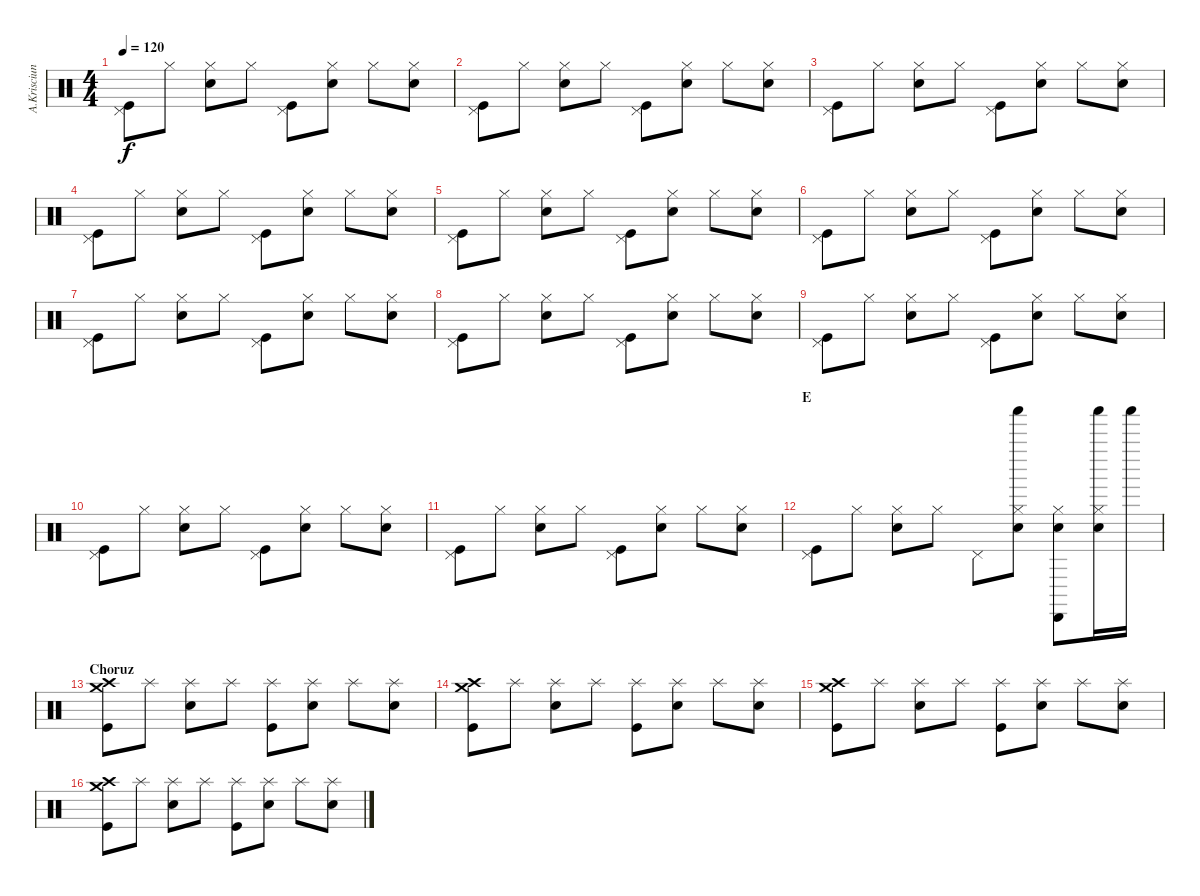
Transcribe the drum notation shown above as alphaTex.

\track ("A.Krisciunas" "A.Krisciun") {instrument percussion}
\staff {score}
\articulation defaults
\ts (4 4)
\tempo 120
\clef neutral
\ks c
("Pedal Hi-Hat (hit)" "Kick (hit)").8{dy f} "Hi-Hat (closed)".8 ("Hi-Hat (closed)" "Electric Snare (hit)").8 "Hi-Hat (closed)".8 ("Pedal Hi-Hat (hit)" "Kick (hit)").8 ("Hi-Hat (closed)" "Electric Snare (hit)").8 "Hi-Hat (closed)".8 ("Hi-Hat (closed)" "Electric Snare (hit)").8 |
("Pedal Hi-Hat (hit)" "Kick (hit)").8 "Hi-Hat (closed)".8 ("Hi-Hat (closed)" "Electric Snare (hit)").8 "Hi-Hat (closed)".8 ("Pedal Hi-Hat (hit)" "Kick (hit)").8 ("Hi-Hat (closed)" "Electric Snare (hit)").8 "Hi-Hat (closed)".8 ("Hi-Hat (closed)" "Electric Snare (hit)").8 |
("Pedal Hi-Hat (hit)" "Kick (hit)").8 "Hi-Hat (closed)".8 ("Hi-Hat (closed)" "Electric Snare (hit)").8 "Hi-Hat (closed)".8 ("Pedal Hi-Hat (hit)" "Kick (hit)").8 ("Hi-Hat (closed)" "Electric Snare (hit)").8 "Hi-Hat (closed)".8 ("Hi-Hat (closed)" "Electric Snare (hit)").8 |
("Pedal Hi-Hat (hit)" "Kick (hit)").8 "Hi-Hat (closed)".8 ("Hi-Hat (closed)" "Electric Snare (hit)").8 "Hi-Hat (closed)".8 ("Pedal Hi-Hat (hit)" "Kick (hit)").8 ("Hi-Hat (closed)" "Electric Snare (hit)").8 "Hi-Hat (closed)".8 ("Hi-Hat (closed)" "Electric Snare (hit)").8 |
("Pedal Hi-Hat (hit)" "Kick (hit)").8 "Hi-Hat (closed)".8 ("Hi-Hat (closed)" "Electric Snare (hit)").8 "Hi-Hat (closed)".8 ("Pedal Hi-Hat (hit)" "Kick (hit)").8 ("Hi-Hat (closed)" "Electric Snare (hit)").8 "Hi-Hat (closed)".8 ("Hi-Hat (closed)" "Electric Snare (hit)").8 |
("Pedal Hi-Hat (hit)" "Kick (hit)").8 "Hi-Hat (closed)".8 ("Hi-Hat (closed)" "Electric Snare (hit)").8 "Hi-Hat (closed)".8 ("Pedal Hi-Hat (hit)" "Kick (hit)").8 ("Hi-Hat (closed)" "Electric Snare (hit)").8 "Hi-Hat (closed)".8 ("Hi-Hat (closed)" "Electric Snare (hit)").8 |
("Pedal Hi-Hat (hit)" "Kick (hit)").8 "Hi-Hat (closed)".8 ("Hi-Hat (closed)" "Electric Snare (hit)").8 "Hi-Hat (closed)".8 ("Pedal Hi-Hat (hit)" "Kick (hit)").8 ("Hi-Hat (closed)" "Electric Snare (hit)").8 "Hi-Hat (closed)".8 ("Hi-Hat (closed)" "Electric Snare (hit)").8 |
("Pedal Hi-Hat (hit)" "Kick (hit)").8 "Hi-Hat (closed)".8 ("Hi-Hat (closed)" "Electric Snare (hit)").8 "Hi-Hat (closed)".8 ("Pedal Hi-Hat (hit)" "Kick (hit)").8 ("Hi-Hat (closed)" "Electric Snare (hit)").8 "Hi-Hat (closed)".8 ("Hi-Hat (closed)" "Electric Snare (hit)").8 |
("Pedal Hi-Hat (hit)" "Kick (hit)").8 "Hi-Hat (closed)".8 ("Hi-Hat (closed)" "Electric Snare (hit)").8 "Hi-Hat (closed)".8 ("Pedal Hi-Hat (hit)" "Kick (hit)").8 ("Hi-Hat (closed)" "Electric Snare (hit)").8 "Hi-Hat (closed)".8 ("Hi-Hat (closed)" "Electric Snare (hit)").8 |
("Pedal Hi-Hat (hit)" "Kick (hit)").8 "Hi-Hat (closed)".8 ("Hi-Hat (closed)" "Electric Snare (hit)").8 "Hi-Hat (closed)".8 ("Pedal Hi-Hat (hit)" "Kick (hit)").8 ("Hi-Hat (closed)" "Electric Snare (hit)").8 "Hi-Hat (closed)".8 ("Hi-Hat (closed)" "Electric Snare (hit)").8 |
("Pedal Hi-Hat (hit)" "Kick (hit)").8 "Hi-Hat (closed)".8 ("Hi-Hat (closed)" "Electric Snare (hit)").8 "Hi-Hat (closed)".8 ("Pedal Hi-Hat (hit)" "Kick (hit)").8 ("Hi-Hat (closed)" "Electric Snare (hit)").8 "Hi-Hat (closed)".8 ("Hi-Hat (closed)" "Electric Snare (hit)").8 |
\section ("" "E")
("Pedal Hi-Hat (hit)" "Kick (hit)").8 "Hi-Hat (closed)".8 ("Hi-Hat (closed)" "Electric Snare (hit)").8 "Hi-Hat (closed)".8 "Pedal Hi-Hat (hit)".8 ("Shaker (hit)" "Hi-Hat (closed)" "Electric Snare (hit)").8 ("Cabasa (hit)" "Hi-Hat (closed)" "Electric Snare (hit)").8 ("Shaker (hit)" "Hi-Hat (closed)" "Electric Snare (hit)").16 "Shaker (hit)".16 |
\section ("" "Choruz")
("Crash medium (hit)" "Crash high (hit)" "Kick (hit)").8 "Splash (hit)".8 ("Splash (hit)" "Electric Snare (hit)").8 "Splash (hit)".8 ("Splash (hit)" "Kick (hit)").8 ("Splash (hit)" "Electric Snare (hit)").8 "Splash (hit)".8 ("Splash (hit)" "Electric Snare (hit)").8 |
("Crash medium (hit)" "Crash high (hit)" "Kick (hit)").8 "Splash (hit)".8 ("Splash (hit)" "Electric Snare (hit)").8 "Splash (hit)".8 ("Splash (hit)" "Kick (hit)").8 ("Splash (hit)" "Electric Snare (hit)").8 "Splash (hit)".8 ("Splash (hit)" "Electric Snare (hit)").8 |
("Crash medium (hit)" "Crash high (hit)" "Kick (hit)").8 "Splash (hit)".8 ("Splash (hit)" "Electric Snare (hit)").8 "Splash (hit)".8 ("Splash (hit)" "Kick (hit)").8 ("Splash (hit)" "Electric Snare (hit)").8 "Splash (hit)".8 ("Splash (hit)" "Electric Snare (hit)").8 |
("Crash medium (hit)" "Crash high (hit)" "Kick (hit)").8 "Splash (hit)".8 ("Splash (hit)" "Electric Snare (hit)").8 "Splash (hit)".8 ("Splash (hit)" "Kick (hit)").8 ("Splash (hit)" "Electric Snare (hit)").8 "Splash (hit)".8 ("Splash (hit)" "Electric Snare (hit)").8
